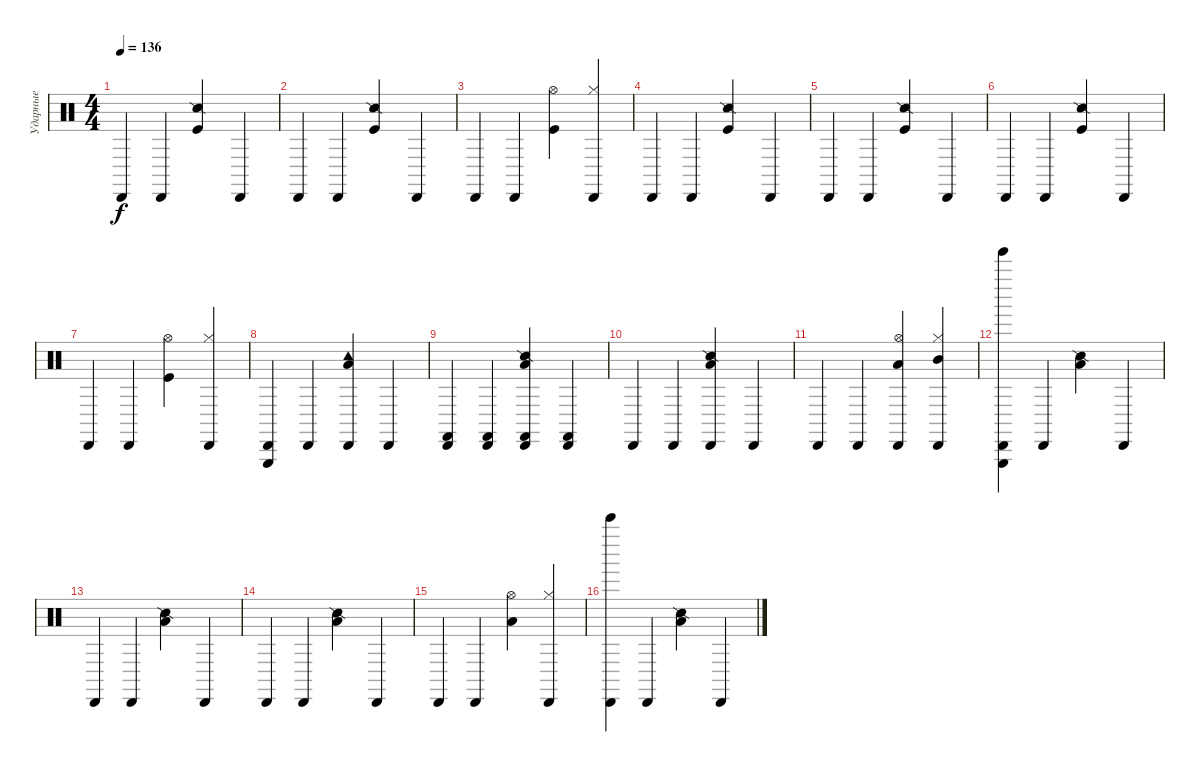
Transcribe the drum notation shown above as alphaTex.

\track ("Ударные" "Ударные") {instrument percussion}
\staff {score}
\articulation defaults
\ts (4 4)
\tempo 136
\clef neutral
\ks c "Cabasa (hit)".4{dy f} "Cabasa (hit)".4
("Snare (side stick) 2" "Kick (hit)").4 "Cabasa (hit)".4 |
"Cabasa (hit)".4 "Cabasa (hit)".4 ("Snare (side stick) 2" "Kick (hit)").4 "Cabasa (hit)".4 |
"Cabasa (hit)".4 "Cabasa (hit)".4 ("Hi-Hat (open)" "Kick (hit)").4 ("Hi-Hat (closed)" "Cabasa (hit)").4 |
"Cabasa (hit)".4 "Cabasa (hit)".4 ("Snare (side stick) 2" "Kick (hit)").4 "Cabasa (hit)".4 |
"Cabasa (hit)".4 "Cabasa (hit)".4 ("Snare (side stick) 2" "Kick (hit)").4 "Cabasa (hit)".4 |
"Cabasa (hit)".4 "Cabasa (hit)".4 ("Snare (side stick) 2" "Kick (hit)").4 "Cabasa (hit)".4 |
"Cabasa (hit)".4 "Cabasa (hit)".4 ("Hi-Hat (open)" "Kick (hit)").4 ("Hi-Hat (closed)" "Cabasa (hit)").4 |
("Triangle (hit)" "Cabasa (hit)").4 "Cabasa (hit)".4 ("Cabasa (hit)" "Tambourine (hit)" "Low Tom (hit)").4 "Cabasa (hit)".4 |
("Cabasa (hit)" "Castanets (hit)").4 ("Cabasa (hit)" "Castanets (hit)").4 ("Cabasa (hit)" "Snare (side stick) 2" "Low Tom (hit)" "Castanets (hit)").4 ("Cabasa (hit)" "Castanets (hit)").4 |
"Cabasa (hit)".4 "Cabasa (hit)".4 ("Cabasa (hit)" "Snare (side stick) 2" "Low Tom (hit)").4 "Cabasa (hit)".4 |
"Cabasa (hit)".4 "Cabasa (hit)".4 ("Cabasa (hit)" "Hi-Hat (open)" "Low Tom (hit)").4 ("Mid Tom (hit)" "Hi-Hat (closed)" "Cabasa (hit)").4 |
("Tinkle Bell (hit)" "Cabasa (hit)" "Triangle (hit)").4 "Cabasa (hit)".4 ("Snare (side stick) 2" "Low Tom (hit)").4 "Cabasa (hit)".4 |
"Cabasa (hit)".4 "Cabasa (hit)".4 ("Snare (side stick) 2" "Low Tom (hit)").4 "Cabasa (hit)".4 |
"Cabasa (hit)".4 "Cabasa (hit)".4 ("Snare (side stick) 2" "Low Tom (hit)").4 "Cabasa (hit)".4 |
"Cabasa (hit)".4 "Cabasa (hit)".4 ("Hi-Hat (open)" "Low Tom (hit)").4 ("Hi-Hat (closed)" "Cabasa (hit)").4 |
("Bell Tree (hit)" "Cabasa (hit)").4 "Cabasa (hit)".4 ("Snare (side stick) 2" "Low Tom (hit)").4 "Cabasa (hit)".4
